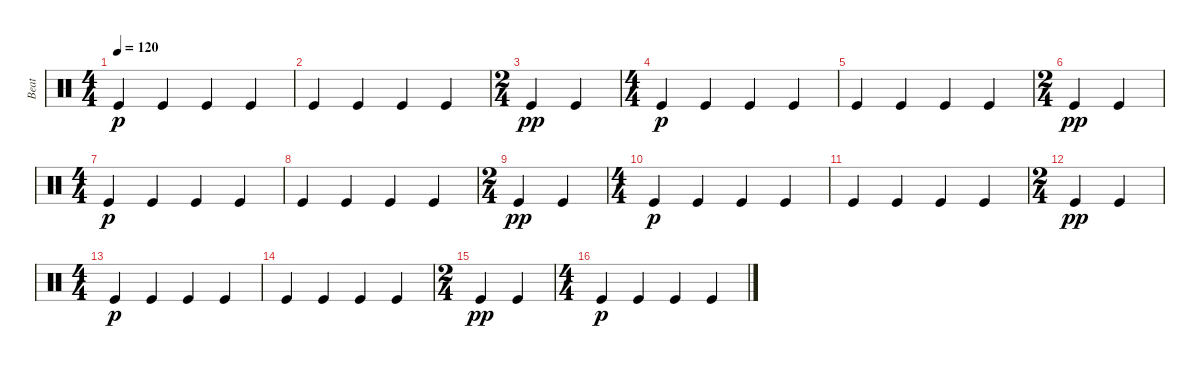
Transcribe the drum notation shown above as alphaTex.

\track ("Beat" "Beat") {instrument percussion}
\staff {score}
\articulation defaults
\ts (4 4)
\tempo 120
\clef neutral
\ks c "Kick (hit)".4{dy p} "Kick (hit)".4 "Kick (hit)".4 "Kick (hit)".4
|
"Kick (hit)".4 "Kick (hit)".4 "Kick (hit)".4 "Kick (hit)".4 |
\ts (2 4)
"Kick (hit)".4{dy pp} "Kick (hit)".4 |
\ts (4 4)
"Kick (hit)".4{dy p} "Kick (hit)".4 "Kick (hit)".4 "Kick (hit)".4 |
"Kick (hit)".4 "Kick (hit)".4 "Kick (hit)".4 "Kick (hit)".4 |
\ts (2 4)
"Kick (hit)".4{dy pp} "Kick (hit)".4 |
\ts (4 4)
"Kick (hit)".4{dy p} "Kick (hit)".4 "Kick (hit)".4 "Kick (hit)".4 |
"Kick (hit)".4 "Kick (hit)".4 "Kick (hit)".4 "Kick (hit)".4 |
\ts (2 4)
"Kick (hit)".4{dy pp} "Kick (hit)".4 |
\ts (4 4)
"Kick (hit)".4{dy p} "Kick (hit)".4 "Kick (hit)".4 "Kick (hit)".4 |
"Kick (hit)".4 "Kick (hit)".4 "Kick (hit)".4 "Kick (hit)".4 |
\ts (2 4)
"Kick (hit)".4{dy pp} "Kick (hit)".4 |
\ts (4 4)
"Kick (hit)".4{dy p} "Kick (hit)".4 "Kick (hit)".4 "Kick (hit)".4 |
"Kick (hit)".4 "Kick (hit)".4 "Kick (hit)".4 "Kick (hit)".4 |
\ts (2 4)
"Kick (hit)".4{dy pp} "Kick (hit)".4 |
\ts (4 4)
"Kick (hit)".4{dy p} "Kick (hit)".4 "Kick (hit)".4 "Kick (hit)".4
